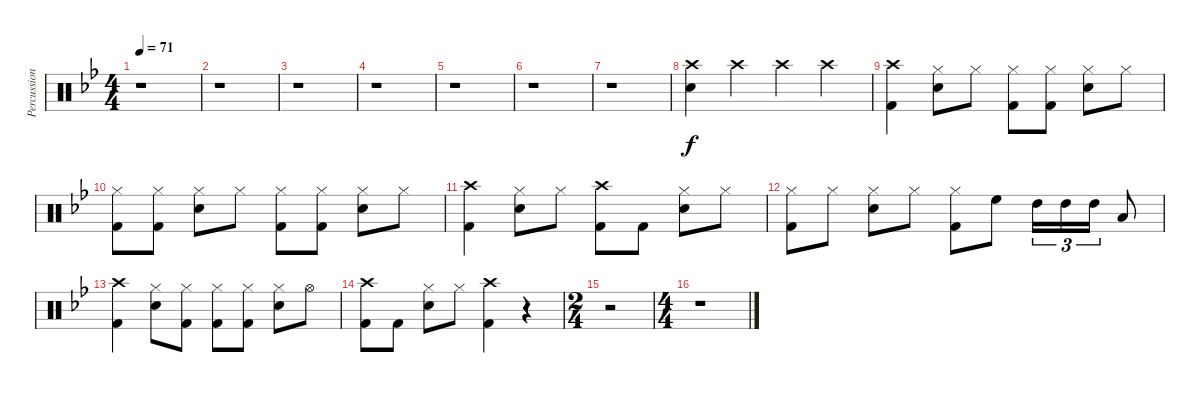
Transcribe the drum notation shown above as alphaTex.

\track ("Percussion" "Percussion") {instrument percussion}
\staff {score}
\articulation defaults
\ts (4 4)
\tempo 71
\clef neutral
\ks bb
r.1{dy f} |
r.1 |
r.1 |
r.1 |
r.1 |
r.1 |
r.1 |
("Crash high (hit)" "Snare (hit) 2").4 "Crash high (hit)".4 "Crash high (hit)".4 "Crash high (hit)".4 |
("Crash high (hit)" "Kick (hit) 2").4 ("Hi-Hat (closed)" "Snare (hit) 2").8 "Hi-Hat (closed)".8 ("Hi-Hat (closed)" "Kick (hit) 2").8 ("Hi-Hat (closed)" "Kick (hit) 2").8 ("Hi-Hat (closed)" "Snare (hit) 2").8 "Hi-Hat (closed)".8 |
("Hi-Hat (closed)" "Kick (hit) 2").8 ("Hi-Hat (closed)" "Kick (hit) 2").8 ("Hi-Hat (closed)" "Snare (hit) 2").8 "Hi-Hat (closed)".8 ("Hi-Hat (closed)" "Kick (hit) 2").8 ("Hi-Hat (closed)" "Kick (hit) 2").8 ("Hi-Hat (closed)" "Snare (hit) 2").8 "Hi-Hat (closed)".8 |
("Crash high (hit)" "Kick (hit) 2").4 ("Hi-Hat (closed)" "Snare (hit) 2").8 "Hi-Hat (closed)".8 ("Crash high (hit)" "Kick (hit) 2").8 "Kick (hit) 2".8 ("Hi-Hat (closed)" "Snare (hit) 2").8 "Hi-Hat (closed)".8 |
("Hi-Hat (closed)" "Kick (hit) 2").8 "Hi-Hat (closed)".8 ("Hi-Hat (closed)" "Snare (hit) 2").8 "Hi-Hat (closed)".8 ("Hi-Hat (closed)" "Kick (hit) 2").8 "High Floor Tom (hit)".8 "High Tom (hit)".16{tu (3 2)} "High Tom (hit)".16{tu (3 2)} "High Tom (hit)".16{tu (3 2)} "Low Tom (hit)".8 |
("Crash high (hit)" "Kick (hit) 2").4 ("Hi-Hat (closed)" "Snare (hit) 2").8 ("Hi-Hat (closed)" "Kick (hit) 2").8 ("Hi-Hat (closed)" "Kick (hit) 2").8 ("Hi-Hat (closed)" "Kick (hit) 2").8 ("Hi-Hat (closed)" "Snare (hit) 2").8 "Hi-Hat (open)".8 |
("Crash high (hit)" "Kick (hit) 2").8 "Kick (hit) 2".8 ("Hi-Hat (closed)" "Snare (hit) 2").8 "Hi-Hat (closed)".8 ("Crash high (hit)" "Kick (hit) 2").4 r.4 |
\ts (2 4)
r.2 |
\ts (4 4)
r.1
